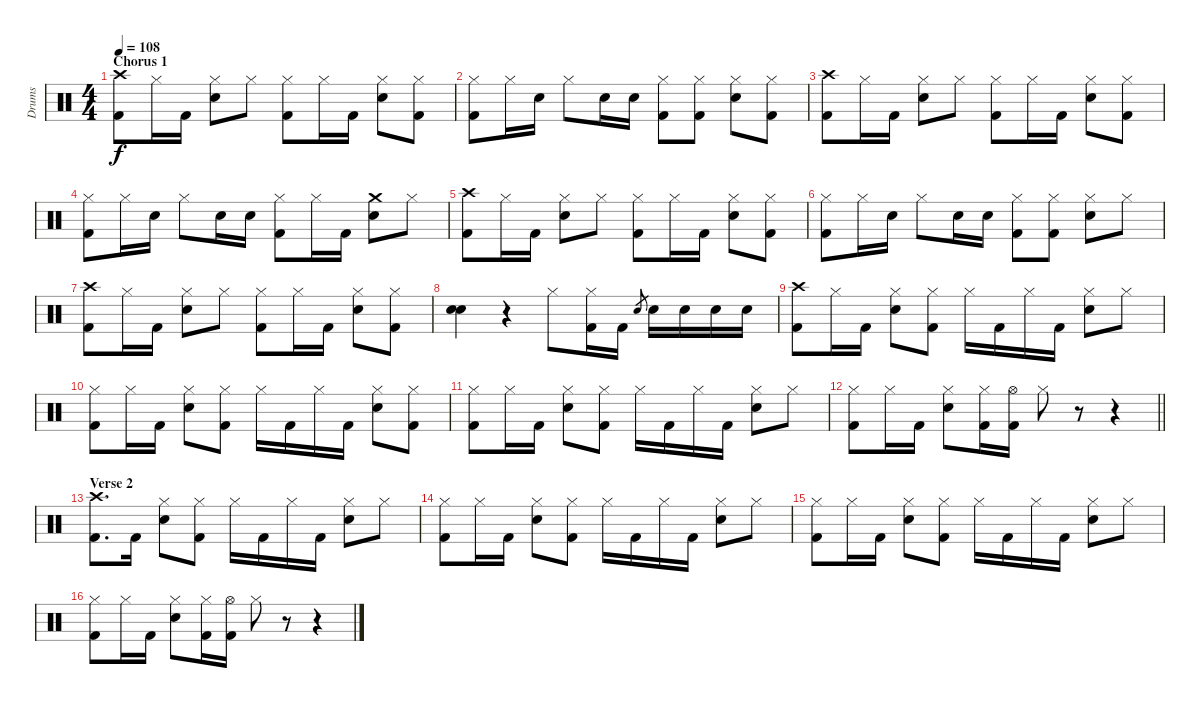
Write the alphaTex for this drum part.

\track ("Drums" "Drums") {instrument percussion}
\staff {score}
\articulation defaults
\ts (4 4)
\section ("" "Chorus 1")
\tempo 108
\clef neutral
\ks c
("Crash high (hit)" "Kick (hit) 2").8{dy f} "Hi-Hat (closed)".16 "Kick (hit) 2".16 ("Hi-Hat (closed)" "Electric Snare (hit)").8 "Hi-Hat (closed)".8 ("Hi-Hat (closed)" "Kick (hit) 2").8 "Hi-Hat (closed)".16 "Kick (hit) 2".16 ("Hi-Hat (closed)" "Electric Snare (hit)").8 ("Hi-Hat (closed)" "Kick (hit) 2").8 |
("Hi-Hat (closed)" "Kick (hit) 2").8 "Hi-Hat (closed)".16 "Electric Snare (hit)".16 "Hi-Hat (closed)".8 "Electric Snare (hit)".16 "Electric Snare (hit)".16 ("Hi-Hat (closed)" "Kick (hit) 2").8 ("Hi-Hat (closed)" "Kick (hit) 2").8 ("Hi-Hat (closed)" "Electric Snare (hit)").8 ("Hi-Hat (closed)" "Kick (hit) 2").8 |
("Crash high (hit)" "Kick (hit) 2").8 "Hi-Hat (closed)".16 "Kick (hit) 2".16 ("Hi-Hat (closed)" "Electric Snare (hit)").8 "Hi-Hat (closed)".8 ("Hi-Hat (closed)" "Kick (hit) 2").8 "Hi-Hat (closed)".16 "Kick (hit) 2".16 ("Hi-Hat (closed)" "Electric Snare (hit)").8 ("Hi-Hat (closed)" "Kick (hit) 2").8 |
("Hi-Hat (closed)" "Kick (hit) 2").8 "Hi-Hat (closed)".16 "Electric Snare (hit)".16 "Hi-Hat (closed)".8 "Electric Snare (hit)".16 "Electric Snare (hit)".16 ("Hi-Hat (closed)" "Kick (hit) 2").8 "Hi-Hat (closed)".16 "Kick (hit) 2".16 ("Crash medium (hit)" "Electric Snare (hit)").8 "Hi-Hat (closed)".8 |
("Crash high (hit)" "Kick (hit) 2").8 "Hi-Hat (closed)".16 "Kick (hit) 2".16 ("Hi-Hat (closed)" "Electric Snare (hit)").8 "Hi-Hat (closed)".8 ("Hi-Hat (closed)" "Kick (hit) 2").8 "Hi-Hat (closed)".16 "Kick (hit) 2".16 ("Hi-Hat (closed)" "Electric Snare (hit)").8 ("Hi-Hat (closed)" "Kick (hit) 2").8 |
("Hi-Hat (closed)" "Kick (hit) 2").8 "Hi-Hat (closed)".16 "Electric Snare (hit)".16 "Hi-Hat (closed)".8 "Electric Snare (hit)".16 "Electric Snare (hit)".16 ("Hi-Hat (closed)" "Kick (hit) 2").8 ("Hi-Hat (closed)" "Kick (hit) 2").8 ("Hi-Hat (closed)" "Electric Snare (hit)").8 "Hi-Hat (closed)".8 |
("Crash high (hit)" "Kick (hit) 2").8 "Hi-Hat (closed)".16 "Kick (hit) 2".16 ("Hi-Hat (closed)" "Electric Snare (hit)").8 "Hi-Hat (closed)".8 ("Hi-Hat (closed)" "Kick (hit) 2").8 "Hi-Hat (closed)".16 "Kick (hit) 2".16 ("Hi-Hat (closed)" "Electric Snare (hit)").8 ("Hi-Hat (closed)" "Kick (hit) 2").8 |
("Electric Snare (hit)" "Electric Snare (hit)").4 r.4 "Hi-Hat (closed)".8 ("Hi-Hat (closed)" "Kick (hit) 2").16 "Kick (hit) 2".16 "Electric Snare (hit)".8{gr} "Electric Snare (hit)".16 "Electric Snare (hit)".16 "Electric Snare (hit)".16 "Electric Snare (hit)".16 |
("Crash high (hit)" "Kick (hit) 2").8 "Hi-Hat (closed)".16 "Kick (hit) 2".16 ("Hi-Hat (closed)" "Electric Snare (hit)").8 ("Hi-Hat (closed)" "Kick (hit) 2").8 "Hi-Hat (closed)".16 "Kick (hit) 2".16 "Hi-Hat (closed)".16 "Kick (hit) 2".16 ("Hi-Hat (closed)" "Electric Snare (hit)").8 "Hi-Hat (closed)".8 |
("Hi-Hat (closed)" "Kick (hit) 2").8 "Hi-Hat (closed)".16 "Kick (hit) 2".16 ("Hi-Hat (closed)" "Electric Snare (hit)").8 ("Hi-Hat (closed)" "Kick (hit) 2").8 "Hi-Hat (closed)".16 "Kick (hit) 2".16 "Hi-Hat (closed)".16 "Kick (hit) 2".16 ("Hi-Hat (closed)" "Electric Snare (hit)").8 ("Hi-Hat (closed)" "Kick (hit) 2").8 |
("Hi-Hat (closed)" "Kick (hit) 2").8 "Hi-Hat (closed)".16 "Kick (hit) 2".16 ("Hi-Hat (closed)" "Electric Snare (hit)").8 ("Hi-Hat (closed)" "Kick (hit) 2").8 "Hi-Hat (closed)".16 "Kick (hit) 2".16 "Hi-Hat (closed)".16 "Kick (hit) 2".16 ("Hi-Hat (closed)" "Electric Snare (hit)").8 "Hi-Hat (closed)".8 |
\barLineRight lightlight
("Hi-Hat (closed)" "Kick (hit) 2").8 "Hi-Hat (closed)".16 "Kick (hit) 2".16 ("Hi-Hat (closed)" "Electric Snare (hit)").8 ("Hi-Hat (closed)" "Kick (hit) 2").16 ("Hi-Hat (open)" "Kick (hit) 2").16 "Hi-Hat (closed)".8 r.8 r.4 |
\section ("" "Verse 2")
("Crash high (hit)" "Kick (hit) 2").8{d} "Kick (hit) 2".16 ("Hi-Hat (closed)" "Electric Snare (hit)").8 ("Hi-Hat (closed)" "Kick (hit) 2").8 "Hi-Hat (closed)".16 "Kick (hit) 2".16 "Hi-Hat (closed)".16 "Kick (hit) 2".16 ("Hi-Hat (closed)" "Electric Snare (hit)").8 "Hi-Hat (closed)".8 |
("Hi-Hat (closed)" "Kick (hit) 2").8 "Hi-Hat (closed)".16 "Kick (hit) 2".16 ("Hi-Hat (closed)" "Electric Snare (hit)").8 ("Hi-Hat (closed)" "Kick (hit) 2").8 "Hi-Hat (closed)".16 "Kick (hit) 2".16 "Hi-Hat (closed)".16 "Kick (hit) 2".16 ("Hi-Hat (closed)" "Electric Snare (hit)").8 "Hi-Hat (closed)".8 |
("Hi-Hat (closed)" "Kick (hit) 2").8 "Hi-Hat (closed)".16 "Kick (hit) 2".16 ("Hi-Hat (closed)" "Electric Snare (hit)").8 ("Hi-Hat (closed)" "Kick (hit) 2").8 "Hi-Hat (closed)".16 "Kick (hit) 2".16 "Hi-Hat (closed)".16 "Kick (hit) 2".16 ("Hi-Hat (closed)" "Electric Snare (hit)").8 "Hi-Hat (closed)".8 |
("Hi-Hat (closed)" "Kick (hit) 2").8 "Hi-Hat (closed)".16 "Kick (hit) 2".16 ("Hi-Hat (closed)" "Electric Snare (hit)").8 ("Hi-Hat (closed)" "Kick (hit) 2").16 ("Hi-Hat (open)" "Kick (hit) 2").16 "Hi-Hat (closed)".8 r.8 r.4
